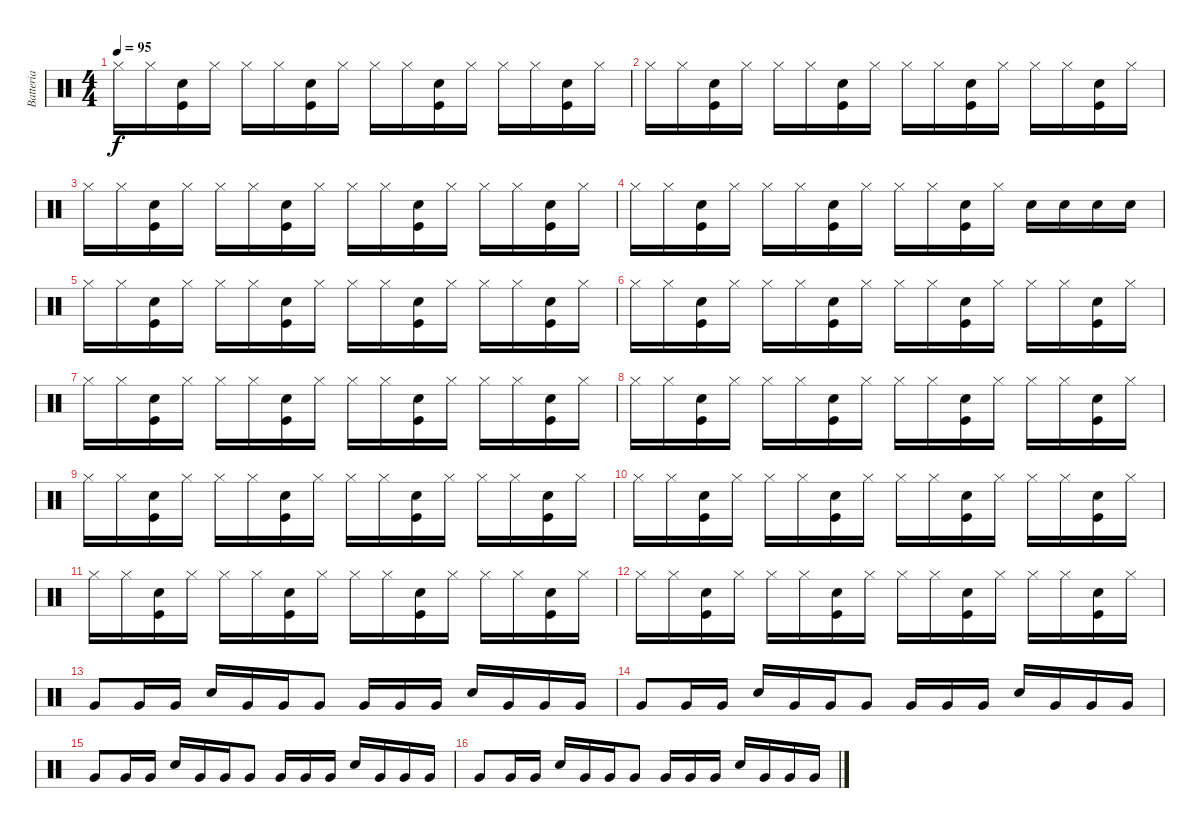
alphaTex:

\track ("Batteria" "Batteria") {instrument percussion}
\staff {score}
\articulation defaults
\ts (4 4)
\tempo 95
\clef neutral
\ks c "Hi-Hat (closed)".16{dy f} "Hi-Hat (closed)".16
("Electric Snare (hit)" "Kick (hit)").16 "Hi-Hat (closed)".16 "Hi-Hat (closed)".16 "Hi-Hat (closed)".16 ("Electric Snare (hit)" "Kick (hit)").16 "Hi-Hat (closed)".16 "Hi-Hat (closed)".16 "Hi-Hat (closed)".16 ("Electric Snare (hit)" "Kick (hit)").16 "Hi-Hat (closed)".16 "Hi-Hat (closed)".16 "Hi-Hat (closed)".16 ("Electric Snare (hit)" "Kick (hit)").16 "Hi-Hat (closed)".16 |
"Hi-Hat (closed)".16 "Hi-Hat (closed)".16 ("Electric Snare (hit)" "Kick (hit)").16 "Hi-Hat (closed)".16 "Hi-Hat (closed)".16 "Hi-Hat (closed)".16 ("Electric Snare (hit)" "Kick (hit)").16 "Hi-Hat (closed)".16 "Hi-Hat (closed)".16 "Hi-Hat (closed)".16 ("Electric Snare (hit)" "Kick (hit)").16 "Hi-Hat (closed)".16 "Hi-Hat (closed)".16 "Hi-Hat (closed)".16 ("Electric Snare (hit)" "Kick (hit)").16 "Hi-Hat (closed)".16 |
"Hi-Hat (closed)".16 "Hi-Hat (closed)".16 ("Electric Snare (hit)" "Kick (hit)").16 "Hi-Hat (closed)".16 "Hi-Hat (closed)".16 "Hi-Hat (closed)".16 ("Electric Snare (hit)" "Kick (hit)").16 "Hi-Hat (closed)".16 "Hi-Hat (closed)".16 "Hi-Hat (closed)".16 ("Electric Snare (hit)" "Kick (hit)").16 "Hi-Hat (closed)".16 "Hi-Hat (closed)".16 "Hi-Hat (closed)".16 ("Electric Snare (hit)" "Kick (hit)").16 "Hi-Hat (closed)".16 |
"Hi-Hat (closed)".16 "Hi-Hat (closed)".16 ("Electric Snare (hit)" "Kick (hit)").16 "Hi-Hat (closed)".16 "Hi-Hat (closed)".16 "Hi-Hat (closed)".16 ("Electric Snare (hit)" "Kick (hit)").16 "Hi-Hat (closed)".16 "Hi-Hat (closed)".16 "Hi-Hat (closed)".16 ("Electric Snare (hit)" "Kick (hit)").16 "Hi-Hat (closed)".16 "Electric Snare (hit)".16 "Electric Snare (hit)".16 "Electric Snare (hit)".16 "Electric Snare (hit)".16 |
"Hi-Hat (closed)".16 "Hi-Hat (closed)".16 ("Electric Snare (hit)" "Kick (hit)").16 "Hi-Hat (closed)".16 "Hi-Hat (closed)".16 "Hi-Hat (closed)".16 ("Electric Snare (hit)" "Kick (hit)").16 "Hi-Hat (closed)".16 "Hi-Hat (closed)".16 "Hi-Hat (closed)".16 ("Electric Snare (hit)" "Kick (hit)").16 "Hi-Hat (closed)".16 "Hi-Hat (closed)".16 "Hi-Hat (closed)".16 ("Electric Snare (hit)" "Kick (hit)").16 "Hi-Hat (closed)".16 |
"Hi-Hat (closed)".16 "Hi-Hat (closed)".16 ("Electric Snare (hit)" "Kick (hit)").16 "Hi-Hat (closed)".16 "Hi-Hat (closed)".16 "Hi-Hat (closed)".16 ("Electric Snare (hit)" "Kick (hit)").16 "Hi-Hat (closed)".16 "Hi-Hat (closed)".16 "Hi-Hat (closed)".16 ("Electric Snare (hit)" "Kick (hit)").16 "Hi-Hat (closed)".16 "Hi-Hat (closed)".16 "Hi-Hat (closed)".16 ("Electric Snare (hit)" "Kick (hit)").16 "Hi-Hat (closed)".16 |
"Hi-Hat (closed)".16 "Hi-Hat (closed)".16 ("Electric Snare (hit)" "Kick (hit)").16 "Hi-Hat (closed)".16 "Hi-Hat (closed)".16 "Hi-Hat (closed)".16 ("Electric Snare (hit)" "Kick (hit)").16 "Hi-Hat (closed)".16 "Hi-Hat (closed)".16 "Hi-Hat (closed)".16 ("Electric Snare (hit)" "Kick (hit)").16 "Hi-Hat (closed)".16 "Hi-Hat (closed)".16 "Hi-Hat (closed)".16 ("Electric Snare (hit)" "Kick (hit)").16 "Hi-Hat (closed)".16 |
"Hi-Hat (closed)".16 "Hi-Hat (closed)".16 ("Electric Snare (hit)" "Kick (hit)").16 "Hi-Hat (closed)".16 "Hi-Hat (closed)".16 "Hi-Hat (closed)".16 ("Electric Snare (hit)" "Kick (hit)").16 "Hi-Hat (closed)".16 "Hi-Hat (closed)".16 "Hi-Hat (closed)".16 ("Electric Snare (hit)" "Kick (hit)").16 "Hi-Hat (closed)".16 "Hi-Hat (closed)".16 "Hi-Hat (closed)".16 ("Electric Snare (hit)" "Kick (hit)").16 "Hi-Hat (closed)".16 |
"Hi-Hat (closed)".16 "Hi-Hat (closed)".16 ("Electric Snare (hit)" "Kick (hit)").16 "Hi-Hat (closed)".16 "Hi-Hat (closed)".16 "Hi-Hat (closed)".16 ("Electric Snare (hit)" "Kick (hit)").16 "Hi-Hat (closed)".16 "Hi-Hat (closed)".16 "Hi-Hat (closed)".16 ("Electric Snare (hit)" "Kick (hit)").16 "Hi-Hat (closed)".16 "Hi-Hat (closed)".16 "Hi-Hat (closed)".16 ("Electric Snare (hit)" "Kick (hit)").16 "Hi-Hat (closed)".16 |
"Hi-Hat (closed)".16 "Hi-Hat (closed)".16 ("Electric Snare (hit)" "Kick (hit)").16 "Hi-Hat (closed)".16 "Hi-Hat (closed)".16 "Hi-Hat (closed)".16 ("Electric Snare (hit)" "Kick (hit)").16 "Hi-Hat (closed)".16 "Hi-Hat (closed)".16 "Hi-Hat (closed)".16 ("Electric Snare (hit)" "Kick (hit)").16 "Hi-Hat (closed)".16 "Hi-Hat (closed)".16 "Hi-Hat (closed)".16 ("Electric Snare (hit)" "Kick (hit)").16 "Hi-Hat (closed)".16 |
"Hi-Hat (closed)".16 "Hi-Hat (closed)".16 ("Electric Snare (hit)" "Kick (hit)").16 "Hi-Hat (closed)".16 "Hi-Hat (closed)".16 "Hi-Hat (closed)".16 ("Electric Snare (hit)" "Kick (hit)").16 "Hi-Hat (closed)".16 "Hi-Hat (closed)".16 "Hi-Hat (closed)".16 ("Electric Snare (hit)" "Kick (hit)").16 "Hi-Hat (closed)".16 "Hi-Hat (closed)".16 "Hi-Hat (closed)".16 ("Electric Snare (hit)" "Kick (hit)").16 "Hi-Hat (closed)".16 |
"Hi-Hat (closed)".16 "Hi-Hat (closed)".16 ("Electric Snare (hit)" "Kick (hit)").16 "Hi-Hat (closed)".16 "Hi-Hat (closed)".16 "Hi-Hat (closed)".16 ("Electric Snare (hit)" "Kick (hit)").16 "Hi-Hat (closed)".16 "Hi-Hat (closed)".16 "Hi-Hat (closed)".16 ("Electric Snare (hit)" "Kick (hit)").16 "Hi-Hat (closed)".16 "Hi-Hat (closed)".16 "Hi-Hat (closed)".16 ("Electric Snare (hit)" "Kick (hit)").16 "Hi-Hat (closed)".16 |
"Very Low Tom (hit)".8 "Very Low Tom (hit)".16 "Very Low Tom (hit)".16 "Electric Snare (hit)".16 "Very Low Tom (hit)".16 "Very Low Tom (hit)".16 "Very Low Tom (hit)".8 "Very Low Tom (hit)".16 "Very Low Tom (hit)".16 "Very Low Tom (hit)".16 "Electric Snare (hit)".16 "Very Low Tom (hit)".16 "Very Low Tom (hit)".16 "Very Low Tom (hit)".16 |
"Very Low Tom (hit)".8 "Very Low Tom (hit)".16 "Very Low Tom (hit)".16 "Electric Snare (hit)".16 "Very Low Tom (hit)".16 "Very Low Tom (hit)".16 "Very Low Tom (hit)".8 "Very Low Tom (hit)".16 "Very Low Tom (hit)".16 "Very Low Tom (hit)".16 "Electric Snare (hit)".16 "Very Low Tom (hit)".16 "Very Low Tom (hit)".16 "Very Low Tom (hit)".16 |
"Very Low Tom (hit)".8 "Very Low Tom (hit)".16 "Very Low Tom (hit)".16 "Electric Snare (hit)".16 "Very Low Tom (hit)".16 "Very Low Tom (hit)".16 "Very Low Tom (hit)".8 "Very Low Tom (hit)".16 "Very Low Tom (hit)".16 "Very Low Tom (hit)".16 "Electric Snare (hit)".16 "Very Low Tom (hit)".16 "Very Low Tom (hit)".16 "Very Low Tom (hit)".16 |
"Very Low Tom (hit)".8 "Very Low Tom (hit)".16 "Very Low Tom (hit)".16 "Electric Snare (hit)".16 "Very Low Tom (hit)".16 "Very Low Tom (hit)".16 "Very Low Tom (hit)".8 "Very Low Tom (hit)".16 "Very Low Tom (hit)".16 "Very Low Tom (hit)".16 "Electric Snare (hit)".16 "Very Low Tom (hit)".16 "Very Low Tom (hit)".16 "Very Low Tom (hit)".16
